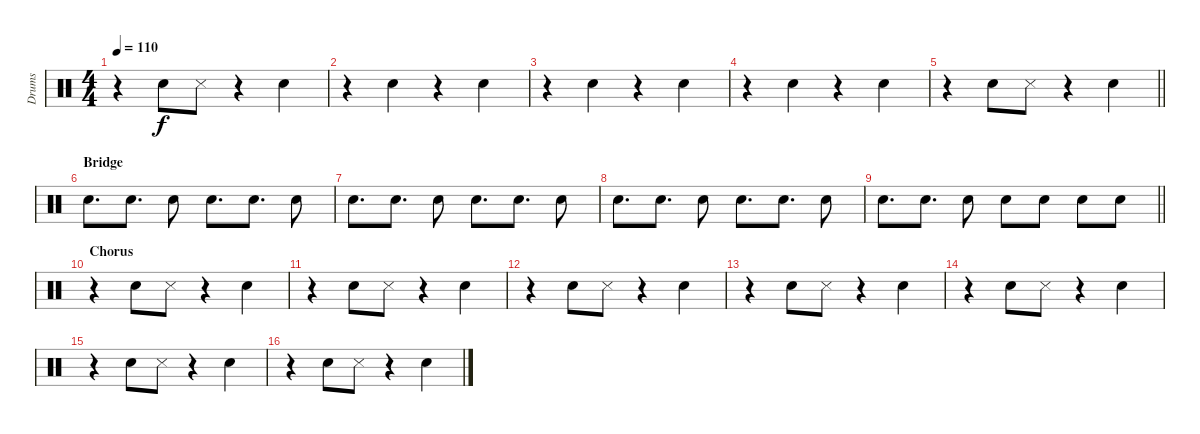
\track ("Drums" "Drums") {instrument percussion}
\staff {score}
\articulation defaults
\ts (4 4)
\tempo 110
\clef neutral
\ks c
r.4{dy f} "Snare (hit) 2".8 "Snare (side stick) 3".8 r.4 "Snare (hit) 2".4 |
r.4 "Snare (hit) 2".4 r.4 "Snare (hit) 2".4 |
r.4 "Snare (hit) 2".4 r.4 "Snare (hit) 2".4 |
r.4 "Snare (hit) 2".4 r.4 "Snare (hit) 2".4 |
\barLineRight lightlight
r.4 "Snare (hit) 2".8 "Snare (side stick) 3".8 r.4 "Snare (hit) 2".4 |
\section ("" "Bridge")
"Snare (hit) 2".8{d} "Snare (hit) 2".8{d} "Snare (hit) 2".8 "Snare (hit) 2".8{d} "Snare (hit) 2".8{d} "Snare (hit) 2".8 |
"Snare (hit) 2".8{d} "Snare (hit) 2".8{d} "Snare (hit) 2".8 "Snare (hit) 2".8{d} "Snare (hit) 2".8{d} "Snare (hit) 2".8 |
"Snare (hit) 2".8{d} "Snare (hit) 2".8{d} "Snare (hit) 2".8 "Snare (hit) 2".8{d} "Snare (hit) 2".8{d} "Snare (hit) 2".8 |
\barLineRight lightlight "Snare (hit) 2".8{d} "Snare (hit) 2".8{d} "Snare (hit) 2".8 "Snare (hit) 2".8 "Snare (hit) 2".8 "Snare (hit) 2".8 "Snare (hit) 2".8
|
\section ("" "Chorus")
r.4 "Snare (hit) 2".8 "Snare (side stick) 3".8 r.4 "Snare (hit) 2".4 |
r.4 "Snare (hit) 2".8 "Snare (side stick) 3".8 r.4 "Snare (hit) 2".4 |
r.4 "Snare (hit) 2".8 "Snare (side stick) 3".8 r.4 "Snare (hit) 2".4 |
r.4 "Snare (hit) 2".8 "Snare (side stick) 3".8 r.4 "Snare (hit) 2".4 |
r.4 "Snare (hit) 2".8 "Snare (side stick) 3".8 r.4 "Snare (hit) 2".4 |
r.4 "Snare (hit) 2".8 "Snare (side stick) 3".8 r.4 "Snare (hit) 2".4 |
r.4 "Snare (hit) 2".8 "Snare (side stick) 3".8 r.4 "Snare (hit) 2".4
